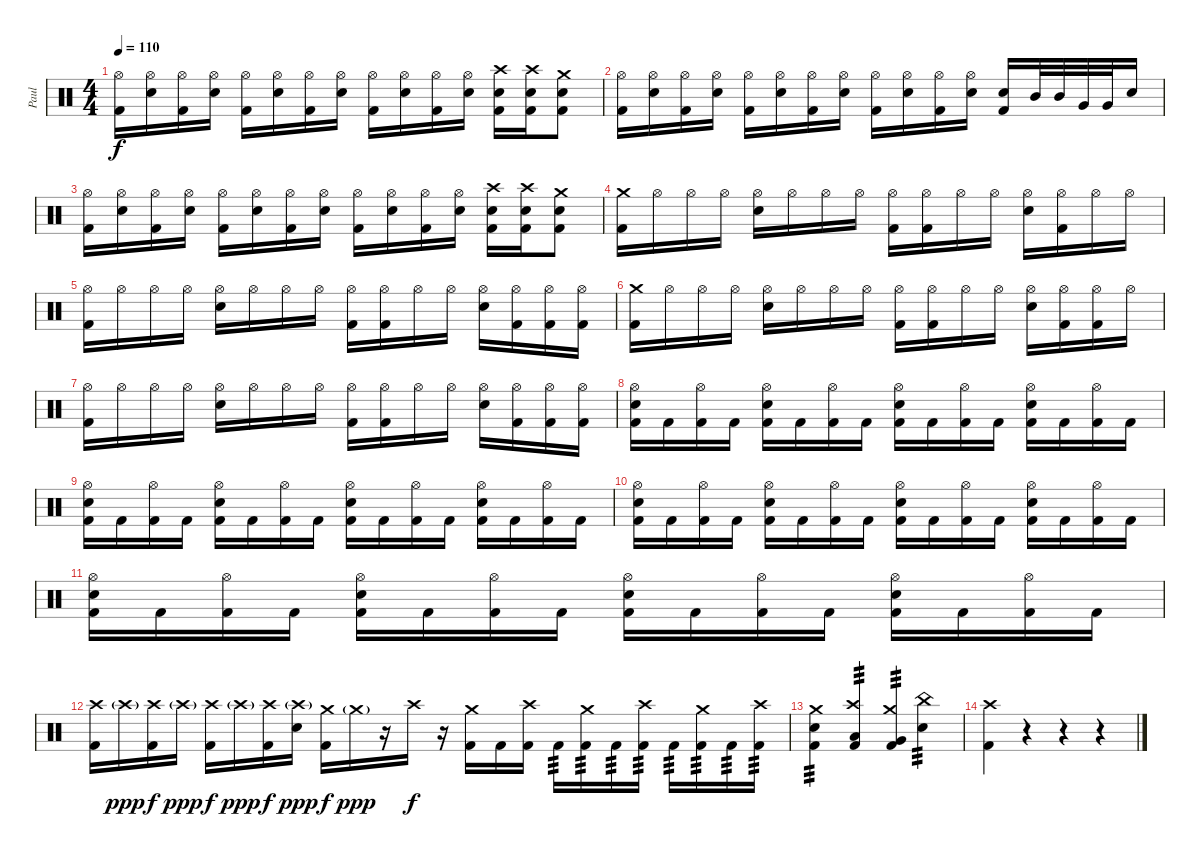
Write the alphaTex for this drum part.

\track ("Paul" "Paul") {solo instrument percussion}
\staff {score}
\articulation defaults
\ts (4 4)
\tempo 110
\clef neutral
\ks c
("Hi-Hat (open)" "Kick (hit) 2").16{dy f} ("Hi-Hat (open)" "Electric Snare (hit)").16 ("Hi-Hat (open)" "Kick (hit) 2").16 ("Hi-Hat (open)" "Electric Snare (hit)").16 ("Hi-Hat (open)" "Kick (hit) 2").16 ("Hi-Hat (open)" "Electric Snare (hit)").16 ("Hi-Hat (open)" "Kick (hit) 2").16 ("Hi-Hat (open)" "Electric Snare (hit)").16 ("Hi-Hat (open)" "Kick (hit) 2").16 ("Hi-Hat (open)" "Electric Snare (hit)").16 ("Hi-Hat (open)" "Kick (hit) 2").16 ("Hi-Hat (open)" "Electric Snare (hit)").16 ("Crash high (hit)" "Electric Snare (hit)" "Kick (hit) 2").16 ("Crash high (hit)" "Electric Snare (hit)" "Kick (hit) 2").16 ("Crash medium (hit)" "Electric Snare (hit)" "Kick (hit) 2").8 |
("Hi-Hat (open)" "Kick (hit) 2").16 ("Hi-Hat (open)" "Electric Snare (hit)").16 ("Hi-Hat (open)" "Kick (hit) 2").16 ("Hi-Hat (open)" "Electric Snare (hit)").16 ("Hi-Hat (open)" "Kick (hit) 2").16 ("Hi-Hat (open)" "Electric Snare (hit)").16 ("Hi-Hat (open)" "Kick (hit) 2").16 ("Hi-Hat (open)" "Electric Snare (hit)").16 ("Hi-Hat (open)" "Kick (hit) 2").16 ("Hi-Hat (open)" "Electric Snare (hit)").16 ("Hi-Hat (open)" "Kick (hit) 2").16 ("Hi-Hat (open)" "Electric Snare (hit)").16 ("Electric Snare (hit)" "Kick (hit) 2").16 "Mid Tom (hit)".32 "Mid Tom (hit)".32 "Very Low Tom (hit)".32 "Very Low Tom (hit)".32 "Electric Snare (hit)".16 |
("Hi-Hat (open)" "Kick (hit) 2").16 ("Hi-Hat (open)" "Electric Snare (hit)").16 ("Hi-Hat (open)" "Kick (hit) 2").16 ("Hi-Hat (open)" "Electric Snare (hit)").16 ("Hi-Hat (open)" "Kick (hit) 2").16 ("Hi-Hat (open)" "Electric Snare (hit)").16 ("Hi-Hat (open)" "Kick (hit) 2").16 ("Hi-Hat (open)" "Electric Snare (hit)").16 ("Hi-Hat (open)" "Kick (hit) 2").16 ("Hi-Hat (open)" "Electric Snare (hit)").16 ("Hi-Hat (open)" "Kick (hit) 2").16 ("Hi-Hat (open)" "Electric Snare (hit)").16 ("Crash high (hit)" "Electric Snare (hit)" "Kick (hit) 2").16 ("Crash high (hit)" "Electric Snare (hit)" "Kick (hit) 2").16 ("Crash medium (hit)" "Electric Snare (hit)" "Kick (hit) 2").8 |
("Crash medium (hit)" "Kick (hit) 2").16 "Hi-Hat (open)".16 "Hi-Hat (open)".16 "Hi-Hat (open)".16 ("Hi-Hat (open)" "Electric Snare (hit)").16 "Hi-Hat (open)".16 "Hi-Hat (open)".16 "Hi-Hat (open)".16 ("Hi-Hat (open)" "Kick (hit) 2").16 ("Hi-Hat (open)" "Kick (hit) 2").16 "Hi-Hat (open)".16 "Hi-Hat (open)".16 ("Hi-Hat (open)" "Electric Snare (hit)").16 ("Hi-Hat (open)" "Kick (hit) 2").16 "Hi-Hat (open)".16 "Hi-Hat (open)".16 |
("Hi-Hat (open)" "Kick (hit) 2").16 "Hi-Hat (open)".16 "Hi-Hat (open)".16 "Hi-Hat (open)".16 ("Hi-Hat (open)" "Electric Snare (hit)").16 "Hi-Hat (open)".16 "Hi-Hat (open)".16 "Hi-Hat (open)".16 ("Hi-Hat (open)" "Kick (hit) 2").16 ("Hi-Hat (open)" "Kick (hit) 2").16 "Hi-Hat (open)".16 "Hi-Hat (open)".16 ("Hi-Hat (open)" "Electric Snare (hit)").16 ("Hi-Hat (open)" "Kick (hit) 2").16 ("Hi-Hat (open)" "Kick (hit) 2").16 ("Hi-Hat (open)" "Kick (hit) 2").16 |
("Crash medium (hit)" "Kick (hit) 2").16 "Hi-Hat (open)".16 "Hi-Hat (open)".16 "Hi-Hat (open)".16 ("Hi-Hat (open)" "Electric Snare (hit)").16 "Hi-Hat (open)".16 "Hi-Hat (open)".16 "Hi-Hat (open)".16 ("Hi-Hat (open)" "Kick (hit) 2").16 ("Hi-Hat (open)" "Kick (hit) 2").16 "Hi-Hat (open)".16 "Hi-Hat (open)".16 ("Hi-Hat (open)" "Electric Snare (hit)").16 ("Hi-Hat (open)" "Kick (hit) 2").16 ("Hi-Hat (open)" "Kick (hit) 2").16 "Hi-Hat (open)".16 |
("Hi-Hat (open)" "Kick (hit) 2").16 "Hi-Hat (open)".16 "Hi-Hat (open)".16 "Hi-Hat (open)".16 ("Hi-Hat (open)" "Electric Snare (hit)").16 "Hi-Hat (open)".16 "Hi-Hat (open)".16 "Hi-Hat (open)".16 ("Hi-Hat (open)" "Kick (hit) 2").16 ("Hi-Hat (open)" "Kick (hit) 2").16 "Hi-Hat (open)".16 "Hi-Hat (open)".16 ("Hi-Hat (open)" "Electric Snare (hit)").16 ("Hi-Hat (open)" "Kick (hit) 2").16 ("Hi-Hat (open)" "Kick (hit) 2").16 ("Hi-Hat (open)" "Kick (hit) 2").16 |
("Hi-Hat (open)" "Electric Snare (hit)" "Kick (hit) 2").16 "Kick (hit) 2".16 ("Hi-Hat (open)" "Kick (hit) 2").16 "Kick (hit) 2".16 ("Hi-Hat (open)" "Electric Snare (hit)" "Kick (hit) 2").16 "Kick (hit) 2".16 ("Hi-Hat (open)" "Kick (hit) 2").16 "Kick (hit) 2".16 ("Hi-Hat (open)" "Electric Snare (hit)" "Kick (hit) 2").16 "Kick (hit) 2".16 ("Hi-Hat (open)" "Kick (hit) 2").16 "Kick (hit) 2".16 ("Hi-Hat (open)" "Electric Snare (hit)" "Kick (hit) 2").16 "Kick (hit) 2".16 ("Hi-Hat (open)" "Kick (hit) 2").16 "Kick (hit) 2".16 |
("Hi-Hat (open)" "Electric Snare (hit)" "Kick (hit) 2").16 "Kick (hit) 2".16 ("Hi-Hat (open)" "Kick (hit) 2").16 "Kick (hit) 2".16 ("Hi-Hat (open)" "Electric Snare (hit)" "Kick (hit) 2").16 "Kick (hit) 2".16 ("Hi-Hat (open)" "Kick (hit) 2").16 "Kick (hit) 2".16 ("Hi-Hat (open)" "Electric Snare (hit)" "Kick (hit) 2").16 "Kick (hit) 2".16 ("Hi-Hat (open)" "Kick (hit) 2").16 "Kick (hit) 2".16 ("Hi-Hat (open)" "Electric Snare (hit)" "Kick (hit) 2").16 "Kick (hit) 2".16 ("Hi-Hat (open)" "Kick (hit) 2").16 "Kick (hit) 2".16 |
("Hi-Hat (open)" "Electric Snare (hit)" "Kick (hit) 2").16 "Kick (hit) 2".16 ("Hi-Hat (open)" "Kick (hit) 2").16 "Kick (hit) 2".16 ("Hi-Hat (open)" "Electric Snare (hit)" "Kick (hit) 2").16 "Kick (hit) 2".16 ("Hi-Hat (open)" "Kick (hit) 2").16 "Kick (hit) 2".16 ("Hi-Hat (open)" "Electric Snare (hit)" "Kick (hit) 2").16 "Kick (hit) 2".16 ("Hi-Hat (open)" "Kick (hit) 2").16 "Kick (hit) 2".16 ("Hi-Hat (open)" "Electric Snare (hit)" "Kick (hit) 2").16 "Kick (hit) 2".16 ("Hi-Hat (open)" "Kick (hit) 2").16 "Kick (hit) 2".16 |
("Hi-Hat (open)" "Electric Snare (hit)" "Kick (hit) 2").16 "Kick (hit) 2".16 ("Hi-Hat (open)" "Kick (hit) 2").16 "Kick (hit) 2".16 ("Hi-Hat (open)" "Electric Snare (hit)" "Kick (hit) 2").16 "Kick (hit) 2".16 ("Hi-Hat (open)" "Kick (hit) 2").16 "Kick (hit) 2".16 ("Hi-Hat (open)" "Electric Snare (hit)" "Kick (hit) 2").16 "Kick (hit) 2".16 ("Hi-Hat (open)" "Kick (hit) 2").16 "Kick (hit) 2".16 ("Hi-Hat (open)" "Electric Snare (hit)" "Kick (hit) 2").16 "Kick (hit) 2".16 ("Hi-Hat (open)" "Kick (hit) 2").16 "Kick (hit) 2".16 |
("Crash high (hit)" "Kick (hit) 2").16 "Crash high (hit)"{g}.16{dy ppp} ("Crash high (hit)" "Kick (hit) 2").16{dy f} "Crash high (hit)"{g}.16{dy ppp} ("Crash high (hit)" "Kick (hit) 2").16{dy f} "Crash high (hit)"{g}.16{dy ppp} ("Crash high (hit)" "Kick (hit) 2").16{dy f} ("Crash high (hit)"{g} "Electric Snare (hit)").16{dy ppp} ("Crash medium (hit)" "Kick (hit) 2").16{dy f} "Crash medium (hit)"{g}.16{dy ppp} r.16 "Crash high (hit)".16{dy f} r.16 ("Crash medium (hit)" "Kick (hit) 2").16 "Kick (hit) 2".16 ("Crash high (hit)" "Kick (hit) 2").16 "Kick (hit) 2".16{tp 3} ("Crash medium (hit)" "Kick (hit) 2").16{tp 3} "Kick (hit) 2".16{tp 3} ("Crash high (hit)" "Kick (hit) 2").16{tp 3} "Kick (hit) 2".16{tp 3} ("Crash medium (hit)" "Kick (hit) 2").16{tp 3} "Kick (hit) 2".16{tp 3} ("Crash high (hit)" "Kick (hit) 2").16{tp 3} |
("Crash medium (hit)" "Electric Snare (hit)" "Kick (hit) 2").4{tp 3} ("Crash high (hit)" "Low Tom (hit)" "Kick (hit) 2").4{tp 3} ("Crash medium (hit)" "Very Low Tom (hit)" "Kick (hit) 2").4{tp 3} ("China (hit)" "Electric Snare (hit)").4{tp 3} |
("Crash high (hit)" "Kick (hit) 2").4 r.4 r.4 r.4
